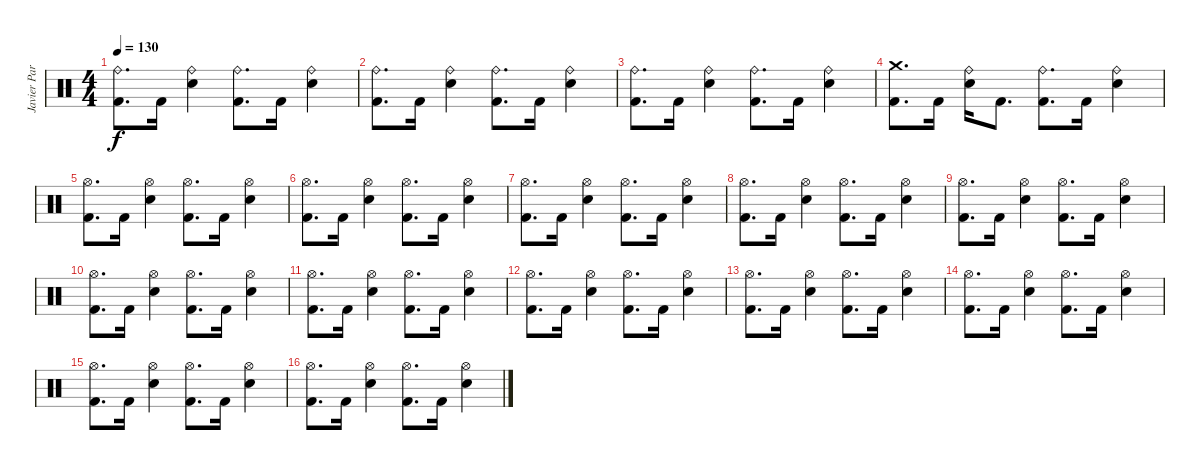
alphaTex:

\track ("Javier Partida" "Javier Par") {instrument percussion}
\staff {score}
\articulation defaults
\ts (4 4)
\tempo 130
\clef neutral
\ks c
("Ride (bell)" "Kick (hit) 2").8{d dy f} "Kick (hit) 2".16 ("Ride (bell)" "Electric Snare (hit)").4 ("Ride (bell)" "Kick (hit) 2").8{d} "Kick (hit) 2".16 ("Ride (bell)" "Electric Snare (hit)").4 |
("Ride (bell)" "Kick (hit) 2").8{d} "Kick (hit) 2".16 ("Ride (bell)" "Electric Snare (hit)").4 ("Ride (bell)" "Kick (hit) 2").8{d} "Kick (hit) 2".16 ("Ride (bell)" "Electric Snare (hit)").4 |
("Ride (bell)" "Kick (hit) 2").8{d} "Kick (hit) 2".16 ("Ride (bell)" "Electric Snare (hit)").4 ("Ride (bell)" "Kick (hit) 2").8{d} "Kick (hit) 2".16 ("Ride (bell)" "Electric Snare (hit)").4 |
("Crash medium (hit)" "Kick (hit) 2").8{d} "Kick (hit) 2".16 ("Ride (bell)" "Electric Snare (hit)").16 "Kick (hit) 2".8{d} ("Ride (bell)" "Kick (hit) 2").8{d} "Kick (hit) 2".16 ("Ride (bell)" "Electric Snare (hit)").4 |
("Hi-Hat (open)" "Kick (hit) 2").8{d} "Kick (hit) 2".16 ("Hi-Hat (open)" "Electric Snare (hit)").4 ("Hi-Hat (open)" "Kick (hit) 2").8{d} "Kick (hit) 2".16 ("Hi-Hat (open)" "Electric Snare (hit)").4 |
("Hi-Hat (open)" "Kick (hit) 2").8{d} "Kick (hit) 2".16 ("Hi-Hat (open)" "Electric Snare (hit)").4 ("Hi-Hat (open)" "Kick (hit) 2").8{d} "Kick (hit) 2".16 ("Hi-Hat (open)" "Electric Snare (hit)").4 |
("Hi-Hat (open)" "Kick (hit) 2").8{d} "Kick (hit) 2".16 ("Hi-Hat (open)" "Electric Snare (hit)").4 ("Hi-Hat (open)" "Kick (hit) 2").8{d} "Kick (hit) 2".16 ("Hi-Hat (open)" "Electric Snare (hit)").4 |
("Hi-Hat (open)" "Kick (hit) 2").8{d} "Kick (hit) 2".16 ("Hi-Hat (open)" "Electric Snare (hit)").4 ("Hi-Hat (open)" "Kick (hit) 2").8{d} "Kick (hit) 2".16 ("Hi-Hat (open)" "Electric Snare (hit)").4 |
("Hi-Hat (open)" "Kick (hit) 2").8{d} "Kick (hit) 2".16 ("Hi-Hat (open)" "Electric Snare (hit)").4 ("Hi-Hat (open)" "Kick (hit) 2").8{d} "Kick (hit) 2".16 ("Hi-Hat (open)" "Electric Snare (hit)").4 |
("Hi-Hat (open)" "Kick (hit) 2").8{d} "Kick (hit) 2".16 ("Hi-Hat (open)" "Electric Snare (hit)").4 ("Hi-Hat (open)" "Kick (hit) 2").8{d} "Kick (hit) 2".16 ("Hi-Hat (open)" "Electric Snare (hit)").4 |
("Hi-Hat (open)" "Kick (hit) 2").8{d} "Kick (hit) 2".16 ("Hi-Hat (open)" "Electric Snare (hit)").4 ("Hi-Hat (open)" "Kick (hit) 2").8{d} "Kick (hit) 2".16 ("Hi-Hat (open)" "Electric Snare (hit)").4 |
("Hi-Hat (open)" "Kick (hit) 2").8{d} "Kick (hit) 2".16 ("Hi-Hat (open)" "Electric Snare (hit)").4 ("Hi-Hat (open)" "Kick (hit) 2").8{d} "Kick (hit) 2".16 ("Hi-Hat (open)" "Electric Snare (hit)").4 |
("Hi-Hat (open)" "Kick (hit) 2").8{d} "Kick (hit) 2".16 ("Hi-Hat (open)" "Electric Snare (hit)").4 ("Hi-Hat (open)" "Kick (hit) 2").8{d} "Kick (hit) 2".16 ("Hi-Hat (open)" "Electric Snare (hit)").4 |
("Hi-Hat (open)" "Kick (hit) 2").8{d} "Kick (hit) 2".16 ("Hi-Hat (open)" "Electric Snare (hit)").4 ("Hi-Hat (open)" "Kick (hit) 2").8{d} "Kick (hit) 2".16 ("Hi-Hat (open)" "Electric Snare (hit)").4 |
("Hi-Hat (open)" "Kick (hit) 2").8{d} "Kick (hit) 2".16 ("Hi-Hat (open)" "Electric Snare (hit)").4 ("Hi-Hat (open)" "Kick (hit) 2").8{d} "Kick (hit) 2".16 ("Hi-Hat (open)" "Electric Snare (hit)").4 |
("Hi-Hat (open)" "Kick (hit) 2").8{d} "Kick (hit) 2".16 ("Hi-Hat (open)" "Electric Snare (hit)").4 ("Hi-Hat (open)" "Kick (hit) 2").8{d} "Kick (hit) 2".16 ("Hi-Hat (open)" "Electric Snare (hit)").4
